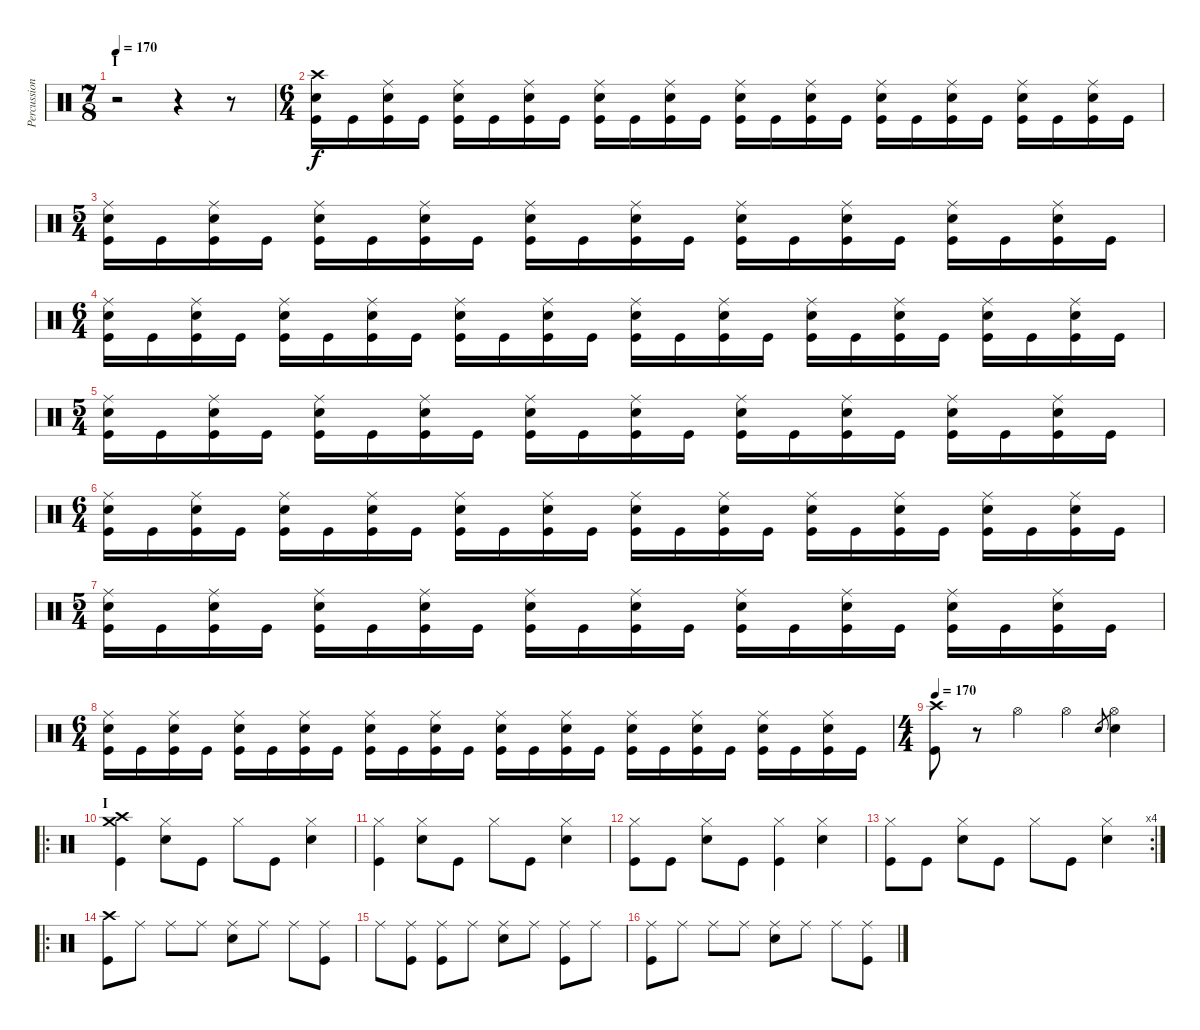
\track ("Percussion" "Percussion") {instrument percussion}
\staff {score}
\articulation defaults
\ts (7 8)
\section ("" "I")
\tempo 170
\tempo 200
\tempo 170
\clef neutral
\ks c
r.2{dy f} r.4 r.8 |
\ts (6 4)
("Crash high (hit)" "Electric Snare (hit)" "Kick (hit)").16 "Kick (hit)".16 ("Ride (middle)" "Electric Snare (hit)" "Kick (hit)").16 "Kick (hit)".16 ("Ride (middle)" "Electric Snare (hit)" "Kick (hit)").16 "Kick (hit)".16 ("Ride (middle)" "Electric Snare (hit)" "Kick (hit)").16 "Kick (hit)".16 ("Ride (middle)" "Electric Snare (hit)" "Kick (hit)").16 "Kick (hit)".16 ("Ride (middle)" "Electric Snare (hit)" "Kick (hit)").16 "Kick (hit)".16 ("Ride (middle)" "Electric Snare (hit)" "Kick (hit)").16 "Kick (hit)".16 ("Ride (middle)" "Electric Snare (hit)" "Kick (hit)").16 "Kick (hit)".16 ("Ride (middle)" "Electric Snare (hit)" "Kick (hit)").16 "Kick (hit)".16 ("Ride (middle)" "Electric Snare (hit)" "Kick (hit)").16 "Kick (hit)".16 ("Ride (middle)" "Electric Snare (hit)" "Kick (hit)").16 "Kick (hit)".16 ("Ride (middle)" "Electric Snare (hit)" "Kick (hit)").16 "Kick (hit)".16 |
\ts (5 4)
("Ride (middle)" "Electric Snare (hit)" "Kick (hit)").16 "Kick (hit)".16 ("Ride (middle)" "Electric Snare (hit)" "Kick (hit)").16 "Kick (hit)".16 ("Ride (middle)" "Electric Snare (hit)" "Kick (hit)").16 "Kick (hit)".16 ("Ride (middle)" "Electric Snare (hit)" "Kick (hit)").16 "Kick (hit)".16 ("Ride (middle)" "Electric Snare (hit)" "Kick (hit)").16 "Kick (hit)".16 ("Ride (middle)" "Electric Snare (hit)" "Kick (hit)").16 "Kick (hit)".16 ("Ride (middle)" "Electric Snare (hit)" "Kick (hit)").16 "Kick (hit)".16 ("Ride (middle)" "Electric Snare (hit)" "Kick (hit)").16 "Kick (hit)".16 ("Ride (middle)" "Electric Snare (hit)" "Kick (hit)").16 "Kick (hit)".16 ("Ride (middle)" "Electric Snare (hit)" "Kick (hit)").16 "Kick (hit)".16 |
\ts (6 4)
("Ride (middle)" "Electric Snare (hit)" "Kick (hit)").16 "Kick (hit)".16 ("Ride (middle)" "Electric Snare (hit)" "Kick (hit)").16 "Kick (hit)".16 ("Ride (middle)" "Electric Snare (hit)" "Kick (hit)").16 "Kick (hit)".16 ("Ride (middle)" "Electric Snare (hit)" "Kick (hit)").16 "Kick (hit)".16 ("Ride (middle)" "Electric Snare (hit)" "Kick (hit)").16 "Kick (hit)".16 ("Ride (middle)" "Electric Snare (hit)" "Kick (hit)").16 "Kick (hit)".16 ("Ride (middle)" "Electric Snare (hit)" "Kick (hit)").16 "Kick (hit)".16 ("Ride (middle)" "Electric Snare (hit)" "Kick (hit)").16 "Kick (hit)".16 ("Ride (middle)" "Electric Snare (hit)" "Kick (hit)").16 "Kick (hit)".16 ("Ride (middle)" "Electric Snare (hit)" "Kick (hit)").16 "Kick (hit)".16 ("Ride (middle)" "Electric Snare (hit)" "Kick (hit)").16 "Kick (hit)".16 ("Ride (middle)" "Electric Snare (hit)" "Kick (hit)").16 "Kick (hit)".16 |
\ts (5 4)
("Ride (middle)" "Electric Snare (hit)" "Kick (hit)").16 "Kick (hit)".16 ("Ride (middle)" "Electric Snare (hit)" "Kick (hit)").16 "Kick (hit)".16 ("Ride (middle)" "Electric Snare (hit)" "Kick (hit)").16 "Kick (hit)".16 ("Ride (middle)" "Electric Snare (hit)" "Kick (hit)").16 "Kick (hit)".16 ("Ride (middle)" "Electric Snare (hit)" "Kick (hit)").16 "Kick (hit)".16 ("Ride (middle)" "Electric Snare (hit)" "Kick (hit)").16 "Kick (hit)".16 ("Ride (middle)" "Electric Snare (hit)" "Kick (hit)").16 "Kick (hit)".16 ("Ride (middle)" "Electric Snare (hit)" "Kick (hit)").16 "Kick (hit)".16 ("Ride (middle)" "Electric Snare (hit)" "Kick (hit)").16 "Kick (hit)".16 ("Ride (middle)" "Electric Snare (hit)" "Kick (hit)").16 "Kick (hit)".16 |
\ts (6 4)
("Ride (middle)" "Electric Snare (hit)" "Kick (hit)").16 "Kick (hit)".16 ("Ride (middle)" "Electric Snare (hit)" "Kick (hit)").16 "Kick (hit)".16 ("Ride (middle)" "Electric Snare (hit)" "Kick (hit)").16 "Kick (hit)".16 ("Ride (middle)" "Electric Snare (hit)" "Kick (hit)").16 "Kick (hit)".16 ("Ride (middle)" "Electric Snare (hit)" "Kick (hit)").16 "Kick (hit)".16 ("Ride (middle)" "Electric Snare (hit)" "Kick (hit)").16 "Kick (hit)".16 ("Ride (middle)" "Electric Snare (hit)" "Kick (hit)").16 "Kick (hit)".16 ("Ride (middle)" "Electric Snare (hit)" "Kick (hit)").16 "Kick (hit)".16 ("Ride (middle)" "Electric Snare (hit)" "Kick (hit)").16 "Kick (hit)".16 ("Ride (middle)" "Electric Snare (hit)" "Kick (hit)").16 "Kick (hit)".16 ("Ride (middle)" "Electric Snare (hit)" "Kick (hit)").16 "Kick (hit)".16 ("Ride (middle)" "Electric Snare (hit)" "Kick (hit)").16 "Kick (hit)".16 |
\ts (5 4)
("Ride (middle)" "Electric Snare (hit)" "Kick (hit)").16 "Kick (hit)".16 ("Ride (middle)" "Electric Snare (hit)" "Kick (hit)").16 "Kick (hit)".16 ("Ride (middle)" "Electric Snare (hit)" "Kick (hit)").16 "Kick (hit)".16 ("Ride (middle)" "Electric Snare (hit)" "Kick (hit)").16 "Kick (hit)".16 ("Ride (middle)" "Electric Snare (hit)" "Kick (hit)").16 "Kick (hit)".16 ("Ride (middle)" "Electric Snare (hit)" "Kick (hit)").16 "Kick (hit)".16 ("Ride (middle)" "Electric Snare (hit)" "Kick (hit)").16 "Kick (hit)".16 ("Ride (middle)" "Electric Snare (hit)" "Kick (hit)").16 "Kick (hit)".16 ("Ride (middle)" "Electric Snare (hit)" "Kick (hit)").16 "Kick (hit)".16 ("Ride (middle)" "Electric Snare (hit)" "Kick (hit)").16 "Kick (hit)".16 |
\ts (6 4)
("Ride (middle)" "Electric Snare (hit)" "Kick (hit)").16 "Kick (hit)".16 ("Ride (middle)" "Electric Snare (hit)" "Kick (hit)").16 "Kick (hit)".16 ("Ride (middle)" "Electric Snare (hit)" "Kick (hit)").16 "Kick (hit)".16 ("Ride (middle)" "Electric Snare (hit)" "Kick (hit)").16 "Kick (hit)".16 ("Ride (middle)" "Electric Snare (hit)" "Kick (hit)").16 "Kick (hit)".16 ("Ride (middle)" "Electric Snare (hit)" "Kick (hit)").16 "Kick (hit)".16 ("Ride (middle)" "Electric Snare (hit)" "Kick (hit)").16 "Kick (hit)".16 ("Ride (middle)" "Electric Snare (hit)" "Kick (hit)").16 "Kick (hit)".16 ("Ride (middle)" "Electric Snare (hit)" "Kick (hit)").16 "Kick (hit)".16 ("Ride (middle)" "Electric Snare (hit)" "Kick (hit)").16 "Kick (hit)".16 ("Ride (middle)" "Electric Snare (hit)" "Kick (hit)").16 "Kick (hit)".16 ("Ride (middle)" "Electric Snare (hit)" "Kick (hit)").16 "Kick (hit)".16 |
\ts (4 4)
\tempo 170
("Crash high (hit)" "Kick (hit)").8 r.8 "Hi-Hat (open)".4 "Hi-Hat (open)".4 "Electric Snare (hit)".8{gr} ("Hi-Hat (open)" "Electric Snare (hit)").4 |
\ro
\section ("" "I")
("Crash high (hit)" "Crash medium (hit)" "Kick (hit)").4 ("Hi-Hat (closed)" "Electric Snare (hit)").8 "Kick (hit)".8 "Hi-Hat (closed)".8 "Kick (hit)".8 ("Hi-Hat (closed)" "Electric Snare (hit)").4 |
("Hi-Hat (closed)" "Kick (hit)").4 ("Hi-Hat (closed)" "Electric Snare (hit)").8 "Kick (hit)".8 "Hi-Hat (closed)".8 "Kick (hit)".8 ("Hi-Hat (closed)" "Electric Snare (hit)").4 |
("Hi-Hat (closed)" "Kick (hit)").8 "Kick (hit)".8 ("Hi-Hat (closed)" "Electric Snare (hit)").8 "Kick (hit)".8 ("Hi-Hat (closed)" "Kick (hit)").4 ("Hi-Hat (closed)" "Electric Snare (hit)").4 |
\rc 4
("Hi-Hat (closed)" "Kick (hit)").8 "Kick (hit)".8 ("Hi-Hat (closed)" "Electric Snare (hit)").8 "Kick (hit)".8 "Hi-Hat (closed)".8 "Kick (hit)".8 ("Hi-Hat (closed)" "Electric Snare (hit)").4 |
\ro
("Crash high (hit)" "Kick (hit)").8 "Ride (middle)".8 "Ride (middle)".8 "Ride (middle)".8 ("Ride (middle)" "Electric Snare (hit)").8 "Ride (middle)".8 "Ride (middle)".8 ("Ride (middle)" "Kick (hit)").8 |
"Ride (middle)".8 ("Ride (middle)" "Kick (hit)").8 ("Ride (middle)" "Kick (hit)").8 "Ride (middle)".8 ("Ride (middle)" "Electric Snare (hit)").8 "Ride (middle)".8 ("Ride (middle)" "Kick (hit)").8 "Ride (middle)".8 |
("Ride (middle)" "Kick (hit)").8 "Ride (middle)".8 "Ride (middle)".8 "Ride (middle)".8 ("Ride (middle)" "Electric Snare (hit)").8 "Ride (middle)".8 "Ride (middle)".8 ("Ride (middle)" "Kick (hit)").8
